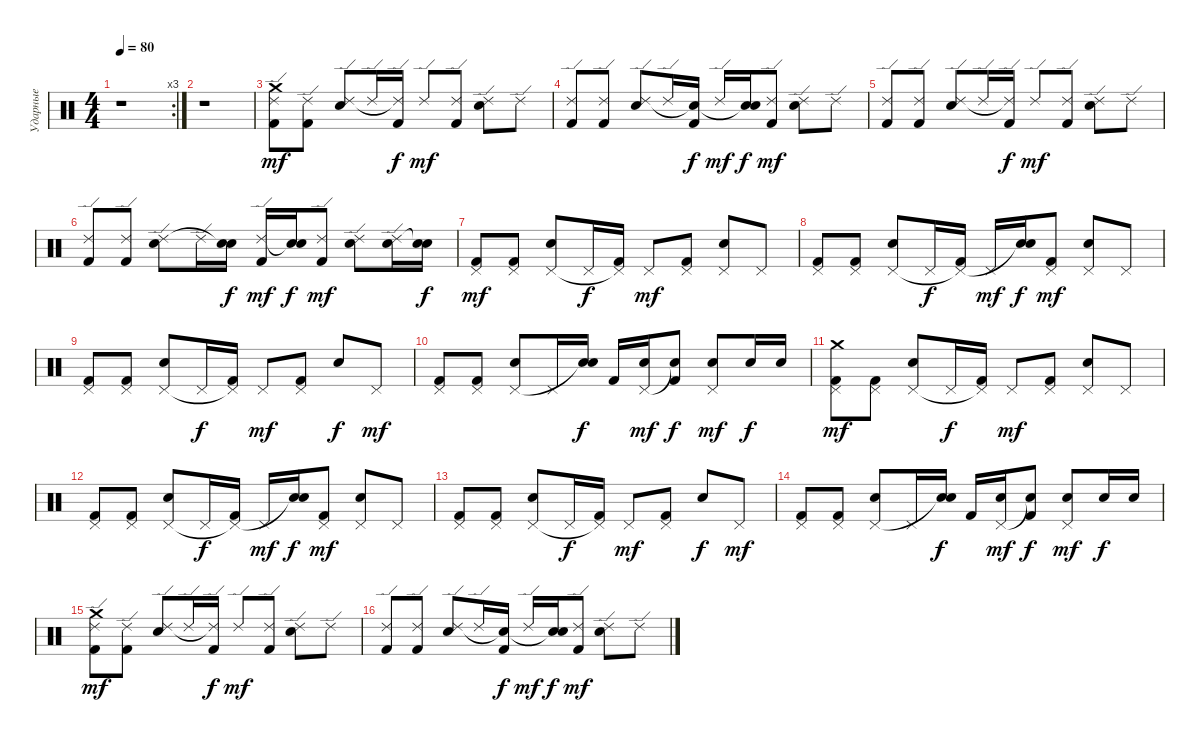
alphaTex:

\track ("Ударные" "Ударные") {instrument percussion}
\staff {score}
\articulation defaults
\rc 3
\ts (4 4)
\tempo 80
\clef neutral
\ks c
r.1{dy mf} |
r.1 |
("Crash medium (hit)" "Kick (hit) 2" "Ride (edge) 2").8 ("Kick (hit) 2" "Ride (edge) 2").8 ("Snare (hit) 2" "Ride (edge) 2").8 "Ride (edge) 2".16 ("Kick (hit) 2" "Ride (edge) 2"{t}).16{dy f} "Ride (edge) 2".8{dy mf} ("Kick (hit) 2" "Ride (edge) 2").8 ("Snare (hit) 2" "Ride (edge) 2").8 "Ride (edge) 2".8 |
("Kick (hit) 2" "Ride (edge) 2").8 ("Kick (hit) 2" "Ride (edge) 2").8 ("Snare (hit) 2" "Ride (edge) 2").8 "Ride (edge) 2".16 ("Kick (hit) 2" "Snare (hit)"{t}).16{dy f} "Ride (edge) 2".16{dy mf} ("Snare (hit) 2" "Snare (hit)"{t}).16{dy f} ("Kick (hit) 2" "Ride (edge) 2").8{dy mf} ("Snare (hit) 2" "Ride (edge) 2").8 "Ride (edge) 2".8 |
("Kick (hit) 2" "Ride (edge) 2").8 ("Kick (hit) 2" "Ride (edge) 2").8 ("Snare (hit) 2" "Ride (edge) 2").8 "Ride (edge) 2".16 ("Kick (hit) 2" "Ride (edge) 2"{t}).16{dy f} "Ride (edge) 2".8{dy mf} ("Kick (hit) 2" "Ride (edge) 2").8 ("Snare (hit) 2" "Ride (edge) 2").8 "Ride (edge) 2".8 |
("Kick (hit) 2" "Ride (edge) 2").8 ("Kick (hit) 2" "Ride (edge) 2").8 ("Snare (hit) 2" "Ride (edge) 2").8 "Ride (edge) 2".16 ("Snare (hit) 2" "Snare (hit)"{t}).16{dy f} ("Kick (hit) 2" "Ride (edge) 2").16{dy mf} ("Snare (hit) 2" "Snare (hit)"{t}).16{dy f} ("Kick (hit) 2" "Ride (edge) 2").8{dy mf} ("Snare (hit) 2" "Ride (edge) 2").8 ("Snare (hit) 2" "Ride (edge) 2").16 ("Snare (hit) 2" "Snare (hit)"{t}).16{dy f} |
("Kick (hit) 2" "Pedal Hi-Hat (hit)").8{dy mf} ("Kick (hit) 2" "Pedal Hi-Hat (hit)").8 ("Snare (hit) 2" "Pedal Hi-Hat (hit)").8 "Pedal Hi-Hat (hit)".16{dy f} ("Kick (hit) 2" "Pedal Hi-Hat (hit)"{t}).16 "Pedal Hi-Hat (hit)".8{dy mf} ("Kick (hit) 2" "Pedal Hi-Hat (hit)").8 ("Snare (hit) 2" "Pedal Hi-Hat (hit)").8 "Pedal Hi-Hat (hit)".8 |
("Kick (hit) 2" "Pedal Hi-Hat (hit)").8 ("Kick (hit) 2" "Pedal Hi-Hat (hit)").8 ("Snare (hit) 2" "Pedal Hi-Hat (hit)").8 "Pedal Hi-Hat (hit)".16{dy f} ("Kick (hit) 2" "Pedal Hi-Hat (hit)"{t}).16 "Pedal Hi-Hat (hit)".16{dy mf} ("Snare (hit) 2" "Snare (hit)"{t}).16{dy f} ("Kick (hit) 2" "Pedal Hi-Hat (hit)").8{dy mf} ("Snare (hit) 2" "Pedal Hi-Hat (hit)").8 "Pedal Hi-Hat (hit)".8 |
("Kick (hit) 2" "Pedal Hi-Hat (hit)").8 ("Kick (hit) 2" "Pedal Hi-Hat (hit)").8 ("Snare (hit) 2" "Pedal Hi-Hat (hit)").8 "Pedal Hi-Hat (hit)".16{dy f} ("Kick (hit) 2" "Pedal Hi-Hat (hit)"{t}).16 "Pedal Hi-Hat (hit)".8{dy mf} ("Kick (hit) 2" "Pedal Hi-Hat (hit)").8 "Snare (hit) 2".8{dy f} "Pedal Hi-Hat (hit)".8{dy mf} |
("Kick (hit) 2" "Pedal Hi-Hat (hit)").8 ("Kick (hit) 2" "Pedal Hi-Hat (hit)").8 ("Snare (hit) 2" "Pedal Hi-Hat (hit)").8 "Pedal Hi-Hat (hit)".16 ("Snare (hit) 2" "Snare (hit)"{t}).16{dy f} "Kick (hit) 2".16 ("Snare (hit) 2" "Pedal Hi-Hat (hit)").16{dy mf} ("Kick (hit) 2" "Snare (hit)"{t}).8{dy f} ("Snare (hit) 2" "Pedal Hi-Hat (hit)").8{dy mf} "Snare (hit) 2".16{dy f} "Snare (hit) 2".16 |
("Crash medium (hit)" "Kick (hit) 2" "Pedal Hi-Hat (hit)").8{dy mf} ("Kick (hit) 2" "Pedal Hi-Hat (hit)").8 ("Snare (hit) 2" "Pedal Hi-Hat (hit)").8 "Pedal Hi-Hat (hit)".16{dy f} ("Kick (hit) 2" "Pedal Hi-Hat (hit)"{t}).16 "Pedal Hi-Hat (hit)".8{dy mf} ("Kick (hit) 2" "Pedal Hi-Hat (hit)").8 ("Snare (hit) 2" "Pedal Hi-Hat (hit)").8 "Pedal Hi-Hat (hit)".8 |
("Kick (hit) 2" "Pedal Hi-Hat (hit)").8 ("Kick (hit) 2" "Pedal Hi-Hat (hit)").8 ("Snare (hit) 2" "Pedal Hi-Hat (hit)").8 "Pedal Hi-Hat (hit)".16{dy f} ("Kick (hit) 2" "Pedal Hi-Hat (hit)"{t}).16 "Pedal Hi-Hat (hit)".16{dy mf} ("Snare (hit) 2" "Snare (hit)"{t}).16{dy f} ("Kick (hit) 2" "Pedal Hi-Hat (hit)").8{dy mf} ("Snare (hit) 2" "Pedal Hi-Hat (hit)").8 "Pedal Hi-Hat (hit)".8 |
("Kick (hit) 2" "Pedal Hi-Hat (hit)").8 ("Kick (hit) 2" "Pedal Hi-Hat (hit)").8 ("Snare (hit) 2" "Pedal Hi-Hat (hit)").8 "Pedal Hi-Hat (hit)".16{dy f} ("Kick (hit) 2" "Pedal Hi-Hat (hit)"{t}).16 "Pedal Hi-Hat (hit)".8{dy mf} ("Kick (hit) 2" "Pedal Hi-Hat (hit)").8 "Snare (hit) 2".8{dy f} "Pedal Hi-Hat (hit)".8{dy mf} |
("Kick (hit) 2" "Pedal Hi-Hat (hit)").8 ("Kick (hit) 2" "Pedal Hi-Hat (hit)").8 ("Snare (hit) 2" "Pedal Hi-Hat (hit)").8 "Pedal Hi-Hat (hit)".16 ("Snare (hit) 2" "Snare (hit)"{t}).16{dy f} "Kick (hit) 2".16 ("Snare (hit) 2" "Pedal Hi-Hat (hit)").16{dy mf} ("Kick (hit) 2" "Snare (hit)"{t}).8{dy f} ("Snare (hit) 2" "Pedal Hi-Hat (hit)").8{dy mf} "Snare (hit) 2".16{dy f} "Snare (hit) 2".16 |
("Crash medium (hit)" "Kick (hit) 2" "Ride (edge) 2").8{dy mf} ("Kick (hit) 2" "Ride (edge) 2").8 ("Snare (hit) 2" "Ride (edge) 2").8 "Ride (edge) 2".16 ("Kick (hit) 2" "Ride (edge) 2"{t}).16{dy f} "Ride (edge) 2".8{dy mf} ("Kick (hit) 2" "Ride (edge) 2").8 ("Snare (hit) 2" "Ride (edge) 2").8 "Ride (edge) 2".8 |
("Kick (hit) 2" "Ride (edge) 2").8 ("Kick (hit) 2" "Ride (edge) 2").8 ("Snare (hit) 2" "Ride (edge) 2").8 "Ride (edge) 2".16 ("Kick (hit) 2" "Snare (hit)"{t}).16{dy f} "Ride (edge) 2".16{dy mf} ("Snare (hit) 2" "Snare (hit)"{t}).16{dy f} ("Kick (hit) 2" "Ride (edge) 2").8{dy mf} ("Snare (hit) 2" "Ride (edge) 2").8 "Ride (edge) 2".8
